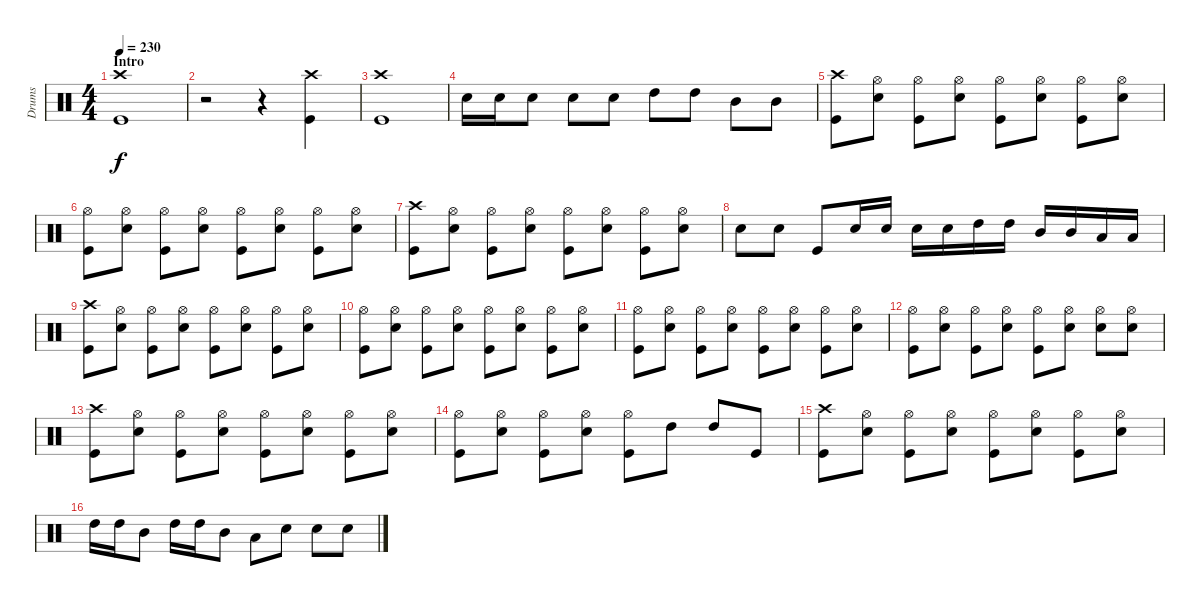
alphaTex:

\track ("Drums" "Drums") {instrument percussion}
\staff {score}
\articulation defaults
\ts (4 4)
\section ("" "Intro")
\tempo 230
\clef neutral
\ks c
("Crash high (hit)" "Kick (hit)").1{dy f} |
r.2 r.4 ("Crash high (hit)" "Kick (hit)").4 |
("Crash high (hit)" "Kick (hit)").1 |
"Electric Snare (hit)".16 "Electric Snare (hit)".16 "Electric Snare (hit)".8 "Electric Snare (hit)".8 "Electric Snare (hit)".8 "High Tom (hit)".8 "High Tom (hit)".8 "Mid Tom (hit)".8 "Mid Tom (hit)".8 |
("Crash high (hit)" "Kick (hit)").8 ("Hi-Hat (open)" "Electric Snare (hit)").8 ("Hi-Hat (open)" "Kick (hit)").8 ("Hi-Hat (open)" "Electric Snare (hit)").8 ("Hi-Hat (open)" "Kick (hit)").8 ("Hi-Hat (open)" "Electric Snare (hit)").8 ("Hi-Hat (open)" "Kick (hit)").8 ("Hi-Hat (open)" "Electric Snare (hit)").8 |
("Hi-Hat (open)" "Kick (hit)").8 ("Hi-Hat (open)" "Electric Snare (hit)").8 ("Hi-Hat (open)" "Kick (hit)").8 ("Hi-Hat (open)" "Electric Snare (hit)").8 ("Hi-Hat (open)" "Kick (hit)").8 ("Hi-Hat (open)" "Electric Snare (hit)").8 ("Hi-Hat (open)" "Kick (hit)").8 ("Hi-Hat (open)" "Electric Snare (hit)").8 |
("Crash high (hit)" "Kick (hit)").8 ("Hi-Hat (open)" "Electric Snare (hit)").8 ("Hi-Hat (open)" "Kick (hit)").8 ("Hi-Hat (open)" "Electric Snare (hit)").8 ("Hi-Hat (open)" "Kick (hit)").8 ("Hi-Hat (open)" "Electric Snare (hit)").8 ("Hi-Hat (open)" "Kick (hit)").8 ("Hi-Hat (open)" "Electric Snare (hit)").8 |
"Electric Snare (hit)".8 "Electric Snare (hit)".8 "Kick (hit)".8 "Electric Snare (hit)".16 "Electric Snare (hit)".16 "Electric Snare (hit)".16 "Electric Snare (hit)".16 "High Tom (hit)".16 "High Tom (hit)".16 "Mid Tom (hit)".16 "Mid Tom (hit)".16 "Low Tom (hit)".16 "Low Tom (hit)".16 |
("Crash high (hit)" "Kick (hit)").8 ("Hi-Hat (open)" "Electric Snare (hit)").8 ("Hi-Hat (open)" "Kick (hit)").8 ("Hi-Hat (open)" "Electric Snare (hit)").8 ("Hi-Hat (open)" "Kick (hit)").8 ("Hi-Hat (open)" "Electric Snare (hit)").8 ("Hi-Hat (open)" "Kick (hit)").8 ("Hi-Hat (open)" "Electric Snare (hit)").8 |
("Hi-Hat (open)" "Kick (hit)").8 ("Hi-Hat (open)" "Electric Snare (hit)").8 ("Hi-Hat (open)" "Kick (hit)").8 ("Hi-Hat (open)" "Electric Snare (hit)").8 ("Hi-Hat (open)" "Kick (hit)").8 ("Hi-Hat (open)" "Electric Snare (hit)").8 ("Hi-Hat (open)" "Kick (hit)").8 ("Hi-Hat (open)" "Electric Snare (hit)").8 |
("Hi-Hat (open)" "Kick (hit)").8 ("Hi-Hat (open)" "Electric Snare (hit)").8 ("Hi-Hat (open)" "Kick (hit)").8 ("Hi-Hat (open)" "Electric Snare (hit)").8 ("Hi-Hat (open)" "Kick (hit)").8 ("Hi-Hat (open)" "Electric Snare (hit)").8 ("Hi-Hat (open)" "Kick (hit)").8 ("Hi-Hat (open)" "Electric Snare (hit)").8 |
("Hi-Hat (open)" "Kick (hit)").8 ("Hi-Hat (open)" "Electric Snare (hit)").8 ("Hi-Hat (open)" "Kick (hit)").8 ("Hi-Hat (open)" "Electric Snare (hit)").8 ("Hi-Hat (open)" "Kick (hit)").8 ("Hi-Hat (open)" "Electric Snare (hit)").8 ("Hi-Hat (open)" "Electric Snare (hit)").8 ("Hi-Hat (open)" "Electric Snare (hit)").8 |
("Crash high (hit)" "Kick (hit)").8 ("Hi-Hat (open)" "Electric Snare (hit)").8 ("Hi-Hat (open)" "Kick (hit)").8 ("Hi-Hat (open)" "Electric Snare (hit)").8 ("Hi-Hat (open)" "Kick (hit)").8 ("Hi-Hat (open)" "Electric Snare (hit)").8 ("Hi-Hat (open)" "Kick (hit)").8 ("Hi-Hat (open)" "Electric Snare (hit)").8 |
("Hi-Hat (open)" "Kick (hit)").8 ("Hi-Hat (open)" "Electric Snare (hit)").8 ("Hi-Hat (open)" "Kick (hit)").8 ("Hi-Hat (open)" "Electric Snare (hit)").8 ("Hi-Hat (open)" "Kick (hit)").8 "High Tom (hit)".8 "High Tom (hit)".8 "Kick (hit)".8 |
("Crash high (hit)" "Kick (hit)").8 ("Hi-Hat (open)" "Electric Snare (hit)").8 ("Hi-Hat (open)" "Kick (hit)").8 ("Hi-Hat (open)" "Electric Snare (hit)").8 ("Hi-Hat (open)" "Kick (hit)").8 ("Hi-Hat (open)" "Electric Snare (hit)").8 ("Hi-Hat (open)" "Kick (hit)").8 ("Hi-Hat (open)" "Electric Snare (hit)").8 |
"High Tom (hit)".16 "High Tom (hit)".16 "Mid Tom (hit)".8 "High Tom (hit)".16 "High Tom (hit)".16 "Mid Tom (hit)".8 "Low Tom (hit)".8 "Electric Snare (hit)".8 "Electric Snare (hit)".8 "Electric Snare (hit)".8
